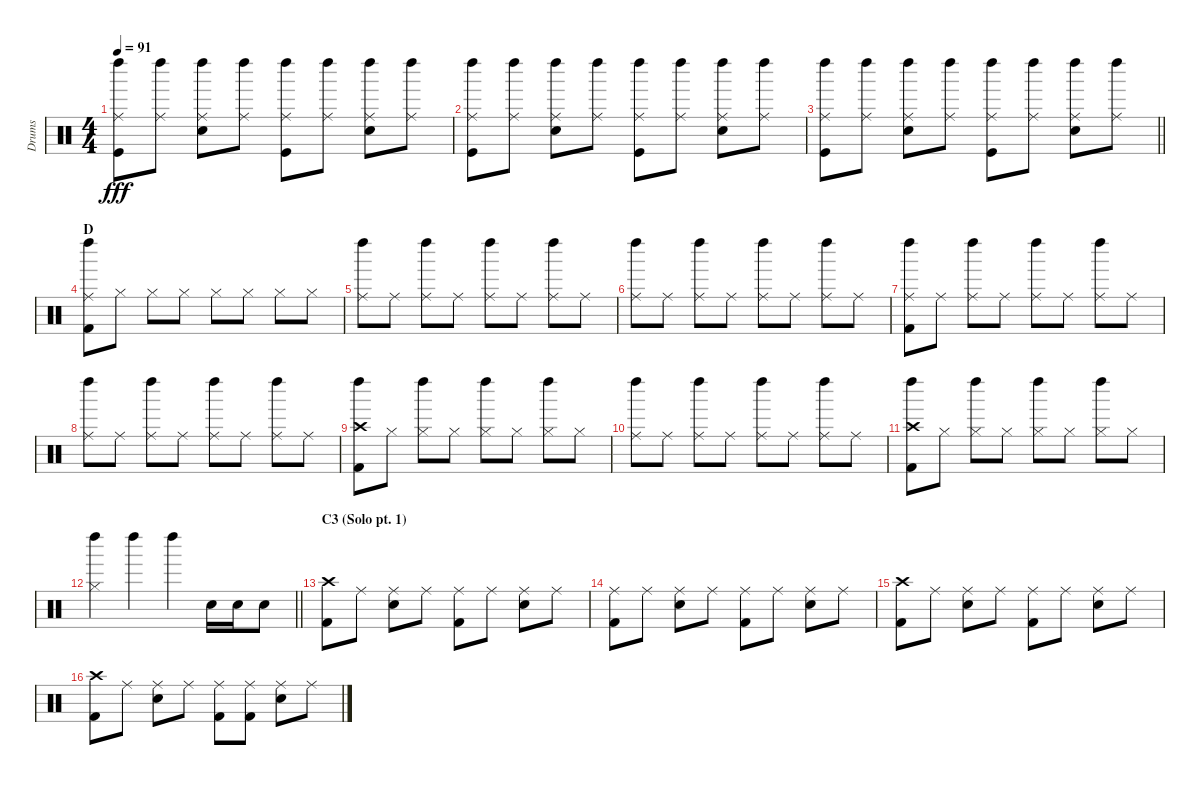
\track ("Drums" "Drums") {instrument percussion}
\staff {score}
\articulation defaults
\ts (4 4)
\tempo 91
\clef neutral
\ks c
("Left Maraca (hit)" "Ride (middle)" "Kick (hit)").8{dy fff} ("Left Maraca (hit)" "Ride (middle)").8 ("Left Maraca (hit)" "Ride (middle)" "Snare (hit) 2").8 ("Left Maraca (hit)" "Ride (middle)").8 ("Left Maraca (hit)" "Ride (middle)" "Kick (hit)").8 ("Left Maraca (hit)" "Ride (middle)").8 ("Left Maraca (hit)" "Ride (middle)" "Snare (hit) 2").8 ("Left Maraca (hit)" "Ride (middle)").8 |
("Left Maraca (hit)" "Ride (middle)" "Kick (hit)").8 ("Left Maraca (hit)" "Ride (middle)").8 ("Left Maraca (hit)" "Ride (middle)" "Snare (hit) 2").8 ("Left Maraca (hit)" "Ride (middle)").8 ("Left Maraca (hit)" "Ride (middle)" "Kick (hit)").8 ("Left Maraca (hit)" "Ride (middle)").8 ("Left Maraca (hit)" "Ride (middle)" "Snare (hit) 2").8 ("Left Maraca (hit)" "Ride (middle)").8 |
\barLineRight lightlight
("Left Maraca (hit)" "Ride (middle)" "Kick (hit)").8 ("Left Maraca (hit)" "Ride (middle)").8 ("Left Maraca (hit)" "Ride (middle)" "Snare (hit) 2").8 ("Left Maraca (hit)" "Ride (middle)").8 ("Left Maraca (hit)" "Ride (middle)" "Kick (hit)").8 ("Left Maraca (hit)" "Ride (middle)").8 ("Left Maraca (hit)" "Ride (middle)" "Snare (hit) 2").8 ("Left Maraca (hit)" "Ride (middle)").8 |
\section ("" "D")
("Left Maraca (hit)" "Ride (middle)" "Kick (hit) 2").8 "Hi-Hat (closed)".8 "Hi-Hat (closed)".8 "Hi-Hat (closed)".8 "Hi-Hat (closed)".8 "Hi-Hat (closed)".8 "Hi-Hat (closed)".8 "Hi-Hat (closed)".8 |
("Left Maraca (hit)" "Ride (middle)").8 "Ride (middle)".8 ("Left Maraca (hit)" "Ride (middle)").8 "Ride (middle)".8 ("Left Maraca (hit)" "Ride (middle)").8 "Ride (middle)".8 ("Left Maraca (hit)" "Ride (middle)").8 "Ride (middle)".8 |
("Left Maraca (hit)" "Ride (middle)").8 "Ride (middle)".8 ("Left Maraca (hit)" "Ride (middle)").8 "Ride (middle)".8 ("Left Maraca (hit)" "Ride (middle)").8 "Ride (middle)".8 ("Left Maraca (hit)" "Ride (middle)").8 "Ride (middle)".8 |
("Left Maraca (hit)" "Ride (middle)" "Kick (hit) 2").8 "Ride (middle)".8 ("Left Maraca (hit)" "Ride (middle)").8 "Ride (middle)".8 ("Left Maraca (hit)" "Ride (middle)").8 "Ride (middle)".8 ("Left Maraca (hit)" "Ride (middle)").8 "Ride (middle)".8 |
("Left Maraca (hit)" "Ride (middle)").8 "Ride (middle)".8 ("Left Maraca (hit)" "Ride (middle)").8 "Ride (middle)".8 ("Left Maraca (hit)" "Ride (middle)").8 "Ride (middle)".8 ("Left Maraca (hit)" "Ride (middle)").8 "Ride (middle)".8 |
("Left Maraca (hit)" "Crash high (hit)" "Kick (hit) 2").8 "Hi-Hat (closed)".8 ("Left Maraca (hit)" "Hi-Hat (closed)").8 "Hi-Hat (closed)".8 ("Left Maraca (hit)" "Hi-Hat (closed)").8 "Hi-Hat (closed)".8 ("Left Maraca (hit)" "Hi-Hat (closed)").8 "Hi-Hat (closed)".8 |
("Left Maraca (hit)" "Ride (middle)").8 "Ride (middle)".8 ("Left Maraca (hit)" "Ride (middle)").8 "Ride (middle)".8 ("Left Maraca (hit)" "Ride (middle)").8 "Ride (middle)".8 ("Left Maraca (hit)" "Ride (middle)").8 "Ride (middle)".8 |
("Left Maraca (hit)" "Crash high (hit)" "Kick (hit) 2").8 "Hi-Hat (closed)".8 ("Left Maraca (hit)" "Hi-Hat (closed)").8 "Hi-Hat (closed)".8 ("Left Maraca (hit)" "Hi-Hat (closed)").8 "Hi-Hat (closed)".8 ("Left Maraca (hit)" "Hi-Hat (closed)").8 "Hi-Hat (closed)".8 |
\barLineRight lightlight
("Left Maraca (hit)" "Hi-Hat (closed)").4 "Left Maraca (hit)".4 "Left Maraca (hit)".4 "Snare (hit) 2".16 "Snare (hit) 2".16 "Snare (hit) 2".8 |
\section ("" "C3 (Solo pt. 1)")
("Crash high (hit)" "Kick (hit) 2").8 "Ride (middle)".8 ("Ride (middle)" "Snare (hit) 2").8 "Ride (middle)".8 ("Ride (middle)" "Kick (hit) 2").8 "Ride (middle)".8 ("Ride (middle)" "Snare (hit) 2").8 "Ride (middle)".8 |
("Ride (middle)" "Kick (hit) 2").8 "Ride (middle)".8 ("Ride (middle)" "Snare (hit) 2").8 "Ride (middle)".8 ("Ride (middle)" "Kick (hit) 2").8 "Ride (middle)".8 ("Ride (middle)" "Snare (hit) 2").8 "Ride (middle)".8 |
("Crash high (hit)" "Kick (hit) 2").8 "Ride (middle)".8 ("Ride (middle)" "Snare (hit) 2").8 "Ride (middle)".8 ("Ride (middle)" "Kick (hit) 2").8 "Ride (middle)".8 ("Ride (middle)" "Snare (hit) 2").8 "Ride (middle)".8 |
("Crash high (hit)" "Kick (hit) 2").8 "Ride (middle)".8 ("Ride (middle)" "Snare (hit) 2").8 "Ride (middle)".8 ("Ride (middle)" "Kick (hit) 2").8 ("Ride (middle)" "Kick (hit) 2").8 ("Ride (middle)" "Snare (hit) 2").8 "Ride (middle)".8
